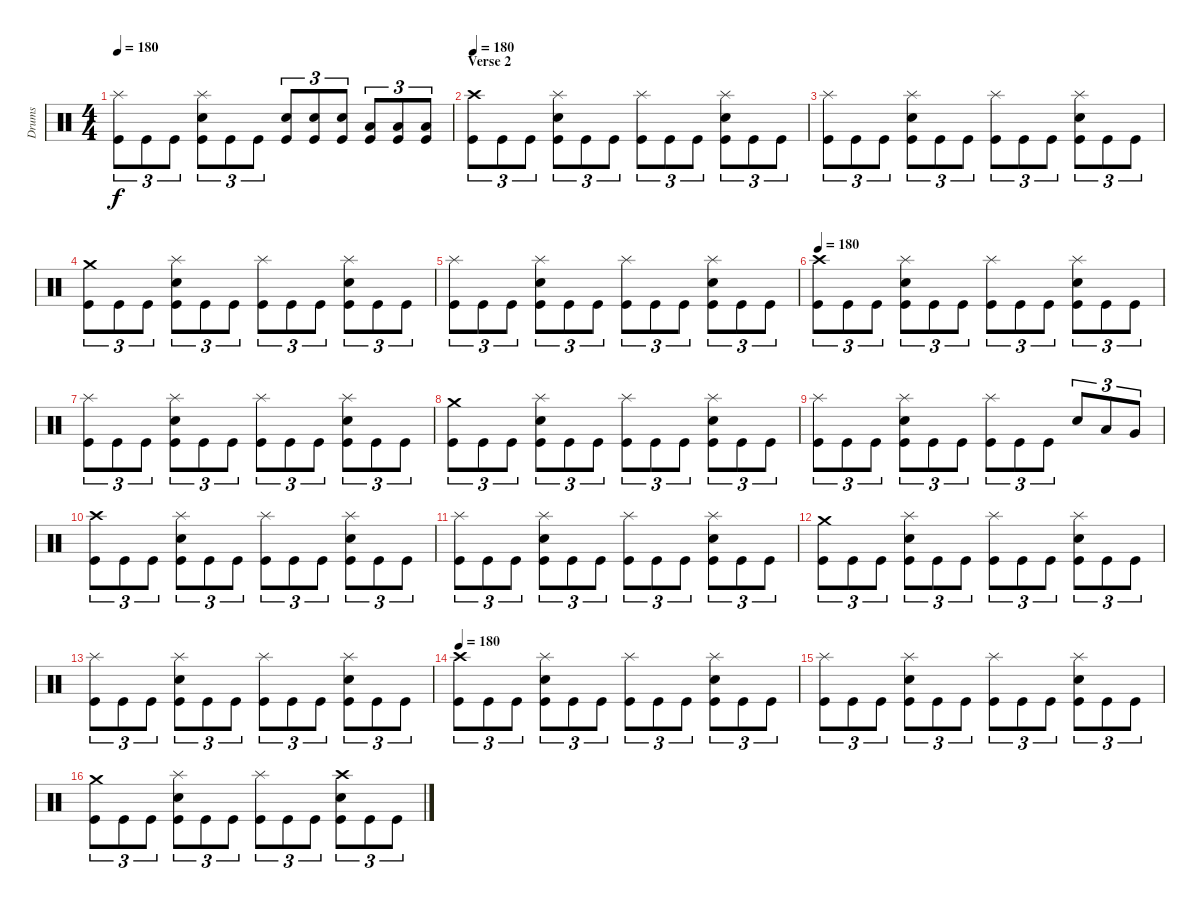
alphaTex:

\track ("Drums" "Drums") {instrument percussion}
\staff {score}
\articulation defaults
\ts (4 4)
\tempo 180
\clef neutral
\ks c
("Splash (hit)" "Kick (hit)").8{tu (3 2) dy f} "Kick (hit)".8{tu (3 2)} "Kick (hit)".8{tu (3 2)} ("Splash (hit)" "Electric Snare (hit)" "Kick (hit)").8{tu (3 2)} "Kick (hit)".8{tu (3 2)} "Kick (hit)".8{tu (3 2)} ("Electric Snare (hit)" "Kick (hit)").8{tu (3 2)} ("Electric Snare (hit)" "Kick (hit)").8{tu (3 2)} ("Electric Snare (hit)" "Kick (hit)").8{tu (3 2)} ("Low Floor Tom (hit)" "Kick (hit)").8{tu (3 2)} ("Low Floor Tom (hit)" "Kick (hit)").8{tu (3 2)} ("Low Floor Tom (hit)" "Kick (hit)").8{tu (3 2)} |
\section ("" "Verse 2")
\tempo 180
("Crash high (hit)" "Kick (hit)").8{tu (3 2)} "Kick (hit)".8{tu (3 2)} "Kick (hit)".8{tu (3 2)} ("Splash (hit)" "Electric Snare (hit)" "Kick (hit)").8{tu (3 2)} "Kick (hit)".8{tu (3 2)} "Kick (hit)".8{tu (3 2)} ("Splash (hit)" "Kick (hit)").8{tu (3 2)} "Kick (hit)".8{tu (3 2)} "Kick (hit)".8{tu (3 2)} ("Splash (hit)" "Electric Snare (hit)" "Kick (hit)").8{tu (3 2)} "Kick (hit)".8{tu (3 2)} "Kick (hit)".8{tu (3 2)} |
("Splash (hit)" "Kick (hit)").8{tu (3 2)} "Kick (hit)".8{tu (3 2)} "Kick (hit)".8{tu (3 2)} ("Splash (hit)" "Electric Snare (hit)" "Kick (hit)").8{tu (3 2)} "Kick (hit)".8{tu (3 2)} "Kick (hit)".8{tu (3 2)} ("Splash (hit)" "Kick (hit)").8{tu (3 2)} "Kick (hit)".8{tu (3 2)} "Kick (hit)".8{tu (3 2)} ("Splash (hit)" "Electric Snare (hit)" "Kick (hit)").8{tu (3 2)} "Kick (hit)".8{tu (3 2)} "Kick (hit)".8{tu (3 2)} |
("Crash medium (hit)" "Kick (hit)").8{tu (3 2)} "Kick (hit)".8{tu (3 2)} "Kick (hit)".8{tu (3 2)} ("Splash (hit)" "Electric Snare (hit)" "Kick (hit)").8{tu (3 2)} "Kick (hit)".8{tu (3 2)} "Kick (hit)".8{tu (3 2)} ("Splash (hit)" "Kick (hit)").8{tu (3 2)} "Kick (hit)".8{tu (3 2)} "Kick (hit)".8{tu (3 2)} ("Splash (hit)" "Electric Snare (hit)" "Kick (hit)").8{tu (3 2)} "Kick (hit)".8{tu (3 2)} "Kick (hit)".8{tu (3 2)} |
("Splash (hit)" "Kick (hit)").8{tu (3 2)} "Kick (hit)".8{tu (3 2)} "Kick (hit)".8{tu (3 2)} ("Splash (hit)" "Electric Snare (hit)" "Kick (hit)").8{tu (3 2)} "Kick (hit)".8{tu (3 2)} "Kick (hit)".8{tu (3 2)} ("Splash (hit)" "Kick (hit)").8{tu (3 2)} "Kick (hit)".8{tu (3 2)} "Kick (hit)".8{tu (3 2)} ("Splash (hit)" "Electric Snare (hit)" "Kick (hit)").8{tu (3 2)} "Kick (hit)".8{tu (3 2)} "Kick (hit)".8{tu (3 2)} |
\tempo 180
("Crash high (hit)" "Kick (hit)").8{tu (3 2)} "Kick (hit)".8{tu (3 2)} "Kick (hit)".8{tu (3 2)} ("Splash (hit)" "Electric Snare (hit)" "Kick (hit)").8{tu (3 2)} "Kick (hit)".8{tu (3 2)} "Kick (hit)".8{tu (3 2)} ("Splash (hit)" "Kick (hit)").8{tu (3 2)} "Kick (hit)".8{tu (3 2)} "Kick (hit)".8{tu (3 2)} ("Splash (hit)" "Electric Snare (hit)" "Kick (hit)").8{tu (3 2)} "Kick (hit)".8{tu (3 2)} "Kick (hit)".8{tu (3 2)} |
("Splash (hit)" "Kick (hit)").8{tu (3 2)} "Kick (hit)".8{tu (3 2)} "Kick (hit)".8{tu (3 2)} ("Splash (hit)" "Electric Snare (hit)" "Kick (hit)").8{tu (3 2)} "Kick (hit)".8{tu (3 2)} "Kick (hit)".8{tu (3 2)} ("Splash (hit)" "Kick (hit)").8{tu (3 2)} "Kick (hit)".8{tu (3 2)} "Kick (hit)".8{tu (3 2)} ("Splash (hit)" "Electric Snare (hit)" "Kick (hit)").8{tu (3 2)} "Kick (hit)".8{tu (3 2)} "Kick (hit)".8{tu (3 2)} |
("Crash medium (hit)" "Kick (hit)").8{tu (3 2)} "Kick (hit)".8{tu (3 2)} "Kick (hit)".8{tu (3 2)} ("Splash (hit)" "Electric Snare (hit)" "Kick (hit)").8{tu (3 2)} "Kick (hit)".8{tu (3 2)} "Kick (hit)".8{tu (3 2)} ("Splash (hit)" "Kick (hit)").8{tu (3 2)} "Kick (hit)".8{tu (3 2)} "Kick (hit)".8{tu (3 2)} ("Splash (hit)" "Electric Snare (hit)" "Kick (hit)").8{tu (3 2)} "Kick (hit)".8{tu (3 2)} "Kick (hit)".8{tu (3 2)} |
("Splash (hit)" "Kick (hit)").8{tu (3 2)} "Kick (hit)".8{tu (3 2)} "Kick (hit)".8{tu (3 2)} ("Splash (hit)" "Electric Snare (hit)" "Kick (hit)").8{tu (3 2)} "Kick (hit)".8{tu (3 2)} "Kick (hit)".8{tu (3 2)} ("Splash (hit)" "Kick (hit)").8{tu (3 2)} "Kick (hit)".8{tu (3 2)} "Kick (hit)".8{tu (3 2)} "Electric Snare (hit)".8{tu (3 2)} "Low Floor Tom (hit)".8{tu (3 2)} "Very Low Tom (hit)".8{tu (3 2)} |
("Crash high (hit)" "Kick (hit)").8{tu (3 2)} "Kick (hit)".8{tu (3 2)} "Kick (hit)".8{tu (3 2)} ("Splash (hit)" "Electric Snare (hit)" "Kick (hit)").8{tu (3 2)} "Kick (hit)".8{tu (3 2)} "Kick (hit)".8{tu (3 2)} ("Splash (hit)" "Kick (hit)").8{tu (3 2)} "Kick (hit)".8{tu (3 2)} "Kick (hit)".8{tu (3 2)} ("Splash (hit)" "Electric Snare (hit)" "Kick (hit)").8{tu (3 2)} "Kick (hit)".8{tu (3 2)} "Kick (hit)".8{tu (3 2)} |
("Splash (hit)" "Kick (hit)").8{tu (3 2)} "Kick (hit)".8{tu (3 2)} "Kick (hit)".8{tu (3 2)} ("Splash (hit)" "Electric Snare (hit)" "Kick (hit)").8{tu (3 2)} "Kick (hit)".8{tu (3 2)} "Kick (hit)".8{tu (3 2)} ("Splash (hit)" "Kick (hit)").8{tu (3 2)} "Kick (hit)".8{tu (3 2)} "Kick (hit)".8{tu (3 2)} ("Splash (hit)" "Electric Snare (hit)" "Kick (hit)").8{tu (3 2)} "Kick (hit)".8{tu (3 2)} "Kick (hit)".8{tu (3 2)} |
("Crash medium (hit)" "Kick (hit)").8{tu (3 2)} "Kick (hit)".8{tu (3 2)} "Kick (hit)".8{tu (3 2)} ("Splash (hit)" "Electric Snare (hit)" "Kick (hit)").8{tu (3 2)} "Kick (hit)".8{tu (3 2)} "Kick (hit)".8{tu (3 2)} ("Splash (hit)" "Kick (hit)").8{tu (3 2)} "Kick (hit)".8{tu (3 2)} "Kick (hit)".8{tu (3 2)} ("Splash (hit)" "Electric Snare (hit)" "Kick (hit)").8{tu (3 2)} "Kick (hit)".8{tu (3 2)} "Kick (hit)".8{tu (3 2)} |
("Splash (hit)" "Kick (hit)").8{tu (3 2)} "Kick (hit)".8{tu (3 2)} "Kick (hit)".8{tu (3 2)} ("Splash (hit)" "Electric Snare (hit)" "Kick (hit)").8{tu (3 2)} "Kick (hit)".8{tu (3 2)} "Kick (hit)".8{tu (3 2)} ("Splash (hit)" "Kick (hit)").8{tu (3 2)} "Kick (hit)".8{tu (3 2)} "Kick (hit)".8{tu (3 2)} ("Splash (hit)" "Electric Snare (hit)" "Kick (hit)").8{tu (3 2)} "Kick (hit)".8{tu (3 2)} "Kick (hit)".8{tu (3 2)} |
\tempo 180
("Crash high (hit)" "Kick (hit)").8{tu (3 2)} "Kick (hit)".8{tu (3 2)} "Kick (hit)".8{tu (3 2)} ("Splash (hit)" "Electric Snare (hit)" "Kick (hit)").8{tu (3 2)} "Kick (hit)".8{tu (3 2)} "Kick (hit)".8{tu (3 2)} ("Splash (hit)" "Kick (hit)").8{tu (3 2)} "Kick (hit)".8{tu (3 2)} "Kick (hit)".8{tu (3 2)} ("Splash (hit)" "Electric Snare (hit)" "Kick (hit)").8{tu (3 2)} "Kick (hit)".8{tu (3 2)} "Kick (hit)".8{tu (3 2)} |
("Splash (hit)" "Kick (hit)").8{tu (3 2)} "Kick (hit)".8{tu (3 2)} "Kick (hit)".8{tu (3 2)} ("Splash (hit)" "Electric Snare (hit)" "Kick (hit)").8{tu (3 2)} "Kick (hit)".8{tu (3 2)} "Kick (hit)".8{tu (3 2)} ("Splash (hit)" "Kick (hit)").8{tu (3 2)} "Kick (hit)".8{tu (3 2)} "Kick (hit)".8{tu (3 2)} ("Splash (hit)" "Electric Snare (hit)" "Kick (hit)").8{tu (3 2)} "Kick (hit)".8{tu (3 2)} "Kick (hit)".8{tu (3 2)} |
("Crash medium (hit)" "Kick (hit)").8{tu (3 2)} "Kick (hit)".8{tu (3 2)} "Kick (hit)".8{tu (3 2)} ("Splash (hit)" "Electric Snare (hit)" "Kick (hit)").8{tu (3 2)} "Kick (hit)".8{tu (3 2)} "Kick (hit)".8{tu (3 2)} ("Splash (hit)" "Kick (hit)").8{tu (3 2)} "Kick (hit)".8{tu (3 2)} "Kick (hit)".8{tu (3 2)} ("Crash high (hit)" "Electric Snare (hit)" "Kick (hit)").8{tu (3 2)} "Kick (hit)".8{tu (3 2)} "Kick (hit)".8{tu (3 2)}
